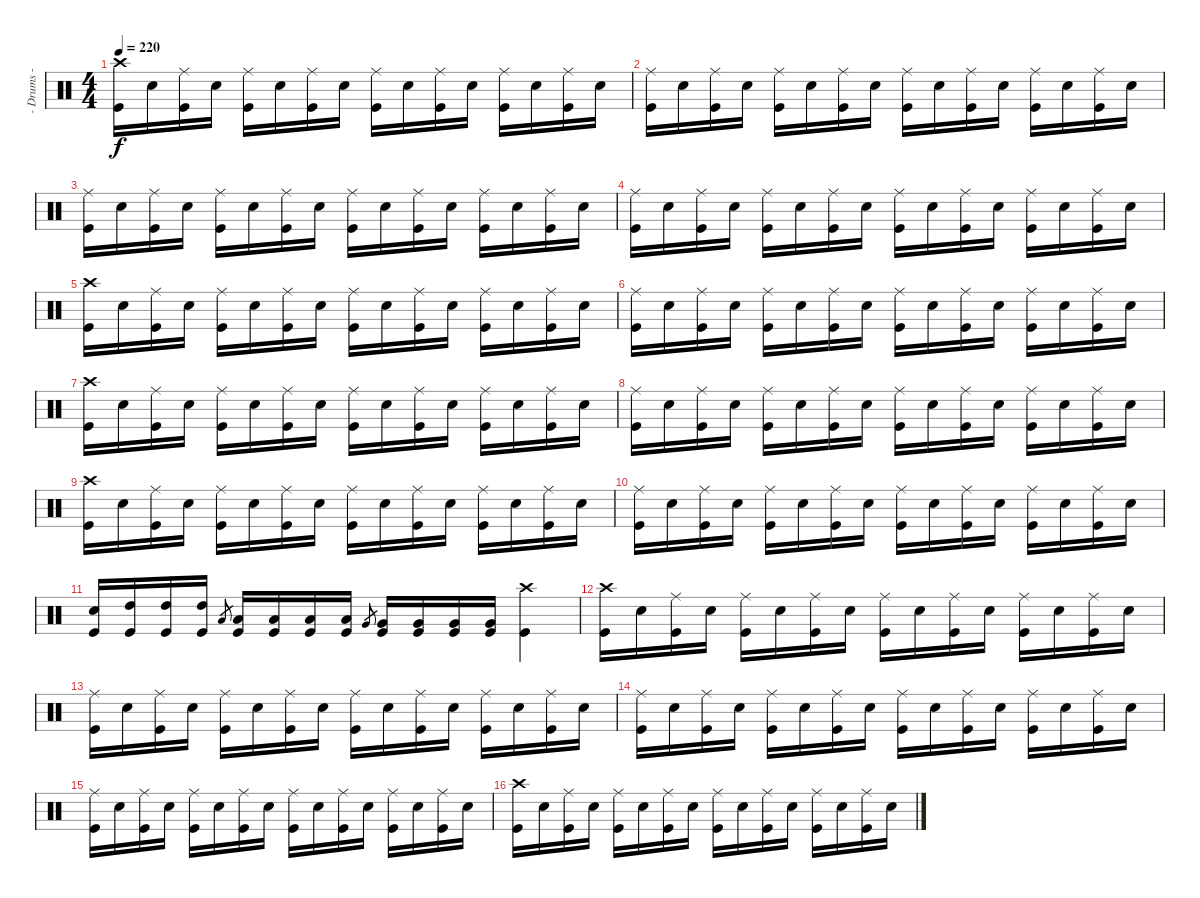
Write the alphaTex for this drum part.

\track ("- Drums -" "- Drums -") {instrument percussion}
\staff {score}
\articulation defaults
\ts (4 4)
\tempo 220
\clef neutral
\ks c
("Crash high (hit)" "Kick (hit)").16{dy f} "Electric Snare (hit)".16 ("Ride (middle)" "Kick (hit)").16 "Electric Snare (hit)".16 ("Ride (middle)" "Kick (hit)").16 "Electric Snare (hit)".16 ("Ride (middle)" "Kick (hit)").16 "Electric Snare (hit)".16 ("Ride (middle)" "Kick (hit)").16 "Electric Snare (hit)".16 ("Ride (middle)" "Kick (hit)").16 "Electric Snare (hit)".16 ("Ride (middle)" "Kick (hit)").16 "Electric Snare (hit)".16 ("Ride (middle)" "Kick (hit)").16 "Electric Snare (hit)".16 |
("Ride (middle)" "Kick (hit)").16 "Electric Snare (hit)".16 ("Ride (middle)" "Kick (hit)").16 "Electric Snare (hit)".16 ("Ride (middle)" "Kick (hit)").16 "Electric Snare (hit)".16 ("Ride (middle)" "Kick (hit)").16 "Electric Snare (hit)".16 ("Ride (middle)" "Kick (hit)").16 "Electric Snare (hit)".16 ("Ride (middle)" "Kick (hit)").16 "Electric Snare (hit)".16 ("Ride (middle)" "Kick (hit)").16 "Electric Snare (hit)".16 ("Ride (middle)" "Kick (hit)").16 "Electric Snare (hit)".16 |
("Ride (middle)" "Kick (hit)").16 "Electric Snare (hit)".16 ("Ride (middle)" "Kick (hit)").16 "Electric Snare (hit)".16 ("Ride (middle)" "Kick (hit)").16 "Electric Snare (hit)".16 ("Ride (middle)" "Kick (hit)").16 "Electric Snare (hit)".16 ("Ride (middle)" "Kick (hit)").16 "Electric Snare (hit)".16 ("Ride (middle)" "Kick (hit)").16 "Electric Snare (hit)".16 ("Ride (middle)" "Kick (hit)").16 "Electric Snare (hit)".16 ("Ride (middle)" "Kick (hit)").16 "Electric Snare (hit)".16 |
("Ride (middle)" "Kick (hit)").16 "Electric Snare (hit)".16 ("Ride (middle)" "Kick (hit)").16 "Electric Snare (hit)".16 ("Ride (middle)" "Kick (hit)").16 "Electric Snare (hit)".16 ("Ride (middle)" "Kick (hit)").16 "Electric Snare (hit)".16 ("Ride (middle)" "Kick (hit)").16 "Electric Snare (hit)".16 ("Ride (middle)" "Kick (hit)").16 "Electric Snare (hit)".16 ("Ride (middle)" "Kick (hit)").16 "Electric Snare (hit)".16 ("Ride (middle)" "Kick (hit)").16 "Electric Snare (hit)".16 |
("Crash high (hit)" "Kick (hit)").16 "Electric Snare (hit)".16 ("Ride (middle)" "Kick (hit)").16 "Electric Snare (hit)".16 ("Ride (middle)" "Kick (hit)").16 "Electric Snare (hit)".16 ("Ride (middle)" "Kick (hit)").16 "Electric Snare (hit)".16 ("Ride (middle)" "Kick (hit)").16 "Electric Snare (hit)".16 ("Ride (middle)" "Kick (hit)").16 "Electric Snare (hit)".16 ("Ride (middle)" "Kick (hit)").16 "Electric Snare (hit)".16 ("Ride (middle)" "Kick (hit)").16 "Electric Snare (hit)".16 |
("Ride (middle)" "Kick (hit)").16 "Electric Snare (hit)".16 ("Ride (middle)" "Kick (hit)").16 "Electric Snare (hit)".16 ("Ride (middle)" "Kick (hit)").16 "Electric Snare (hit)".16 ("Ride (middle)" "Kick (hit)").16 "Electric Snare (hit)".16 ("Ride (middle)" "Kick (hit)").16 "Electric Snare (hit)".16 ("Ride (middle)" "Kick (hit)").16 "Electric Snare (hit)".16 ("Ride (middle)" "Kick (hit)").16 "Electric Snare (hit)".16 ("Ride (middle)" "Kick (hit)").16 "Electric Snare (hit)".16 |
("Crash high (hit)" "Kick (hit)").16 "Electric Snare (hit)".16 ("Ride (middle)" "Kick (hit)").16 "Electric Snare (hit)".16 ("Ride (middle)" "Kick (hit)").16 "Electric Snare (hit)".16 ("Ride (middle)" "Kick (hit)").16 "Electric Snare (hit)".16 ("Ride (middle)" "Kick (hit)").16 "Electric Snare (hit)".16 ("Ride (middle)" "Kick (hit)").16 "Electric Snare (hit)".16 ("Ride (middle)" "Kick (hit)").16 "Electric Snare (hit)".16 ("Ride (middle)" "Kick (hit)").16 "Electric Snare (hit)".16 |
("Ride (middle)" "Kick (hit)").16 "Electric Snare (hit)".16 ("Ride (middle)" "Kick (hit)").16 "Electric Snare (hit)".16 ("Ride (middle)" "Kick (hit)").16 "Electric Snare (hit)".16 ("Ride (middle)" "Kick (hit)").16 "Electric Snare (hit)".16 ("Ride (middle)" "Kick (hit)").16 "Electric Snare (hit)".16 ("Ride (middle)" "Kick (hit)").16 "Electric Snare (hit)".16 ("Ride (middle)" "Kick (hit)").16 "Electric Snare (hit)".16 ("Ride (middle)" "Kick (hit)").16 "Electric Snare (hit)".16 |
("Crash high (hit)" "Kick (hit)").16 "Electric Snare (hit)".16 ("Ride (middle)" "Kick (hit)").16 "Electric Snare (hit)".16 ("Ride (middle)" "Kick (hit)").16 "Electric Snare (hit)".16 ("Ride (middle)" "Kick (hit)").16 "Electric Snare (hit)".16 ("Ride (middle)" "Kick (hit)").16 "Electric Snare (hit)".16 ("Ride (middle)" "Kick (hit)").16 "Electric Snare (hit)".16 ("Ride (middle)" "Kick (hit)").16 "Electric Snare (hit)".16 ("Ride (middle)" "Kick (hit)").16 "Electric Snare (hit)".16 |
("Ride (middle)" "Kick (hit)").16 "Electric Snare (hit)".16 ("Ride (middle)" "Kick (hit)").16 "Electric Snare (hit)".16 ("Ride (middle)" "Kick (hit)").16 "Electric Snare (hit)".16 ("Ride (middle)" "Kick (hit)").16 "Electric Snare (hit)".16 ("Ride (middle)" "Kick (hit)").16 "Electric Snare (hit)".16 ("Ride (middle)" "Kick (hit)").16 "Electric Snare (hit)".16 ("Ride (middle)" "Kick (hit)").16 "Electric Snare (hit)".16 ("Ride (middle)" "Kick (hit)").16 "Electric Snare (hit)".16 |
("Electric Snare (hit)" "Kick (hit)").16 ("High Tom (hit)" "Kick (hit)").16 ("High Tom (hit)" "Kick (hit)").16 ("High Tom (hit)" "Kick (hit)").16 "Low Tom (hit)".8{gr} ("Low Tom (hit)" "Kick (hit)").16 ("Low Tom (hit)" "Kick (hit)").16 ("Low Tom (hit)" "Kick (hit)").16 ("Low Tom (hit)" "Kick (hit)").16 "Very Low Tom (hit)".8{gr} ("Very Low Tom (hit)" "Kick (hit)").16 ("Very Low Tom (hit)" "Kick (hit)").16 ("Very Low Tom (hit)" "Kick (hit)").16 ("Very Low Tom (hit)" "Kick (hit)").16 ("Crash high (hit)" "Kick (hit)").4 |
("Crash high (hit)" "Kick (hit)").16 "Electric Snare (hit)".16 ("Ride (middle)" "Kick (hit)").16 "Electric Snare (hit)".16 ("Ride (middle)" "Kick (hit)").16 "Electric Snare (hit)".16 ("Ride (middle)" "Kick (hit)").16 "Electric Snare (hit)".16 ("Ride (middle)" "Kick (hit)").16 "Electric Snare (hit)".16 ("Ride (middle)" "Kick (hit)").16 "Electric Snare (hit)".16 ("Ride (middle)" "Kick (hit)").16 "Electric Snare (hit)".16 ("Ride (middle)" "Kick (hit)").16 "Electric Snare (hit)".16 |
("Ride (middle)" "Kick (hit)").16 "Electric Snare (hit)".16 ("Ride (middle)" "Kick (hit)").16 "Electric Snare (hit)".16 ("Ride (middle)" "Kick (hit)").16 "Electric Snare (hit)".16 ("Ride (middle)" "Kick (hit)").16 "Electric Snare (hit)".16 ("Ride (middle)" "Kick (hit)").16 "Electric Snare (hit)".16 ("Ride (middle)" "Kick (hit)").16 "Electric Snare (hit)".16 ("Ride (middle)" "Kick (hit)").16 "Electric Snare (hit)".16 ("Ride (middle)" "Kick (hit)").16 "Electric Snare (hit)".16 |
("Ride (middle)" "Kick (hit)").16 "Electric Snare (hit)".16 ("Ride (middle)" "Kick (hit)").16 "Electric Snare (hit)".16 ("Ride (middle)" "Kick (hit)").16 "Electric Snare (hit)".16 ("Ride (middle)" "Kick (hit)").16 "Electric Snare (hit)".16 ("Ride (middle)" "Kick (hit)").16 "Electric Snare (hit)".16 ("Ride (middle)" "Kick (hit)").16 "Electric Snare (hit)".16 ("Ride (middle)" "Kick (hit)").16 "Electric Snare (hit)".16 ("Ride (middle)" "Kick (hit)").16 "Electric Snare (hit)".16 |
("Ride (middle)" "Kick (hit)").16 "Electric Snare (hit)".16 ("Ride (middle)" "Kick (hit)").16 "Electric Snare (hit)".16 ("Ride (middle)" "Kick (hit)").16 "Electric Snare (hit)".16 ("Ride (middle)" "Kick (hit)").16 "Electric Snare (hit)".16 ("Ride (middle)" "Kick (hit)").16 "Electric Snare (hit)".16 ("Ride (middle)" "Kick (hit)").16 "Electric Snare (hit)".16 ("Ride (middle)" "Kick (hit)").16 "Electric Snare (hit)".16 ("Ride (middle)" "Kick (hit)").16 "Electric Snare (hit)".16 |
("Crash high (hit)" "Kick (hit)").16 "Electric Snare (hit)".16 ("Ride (middle)" "Kick (hit)").16 "Electric Snare (hit)".16 ("Ride (middle)" "Kick (hit)").16 "Electric Snare (hit)".16 ("Ride (middle)" "Kick (hit)").16 "Electric Snare (hit)".16 ("Ride (middle)" "Kick (hit)").16 "Electric Snare (hit)".16 ("Ride (middle)" "Kick (hit)").16 "Electric Snare (hit)".16 ("Ride (middle)" "Kick (hit)").16 "Electric Snare (hit)".16 ("Ride (middle)" "Kick (hit)").16 "Electric Snare (hit)".16
